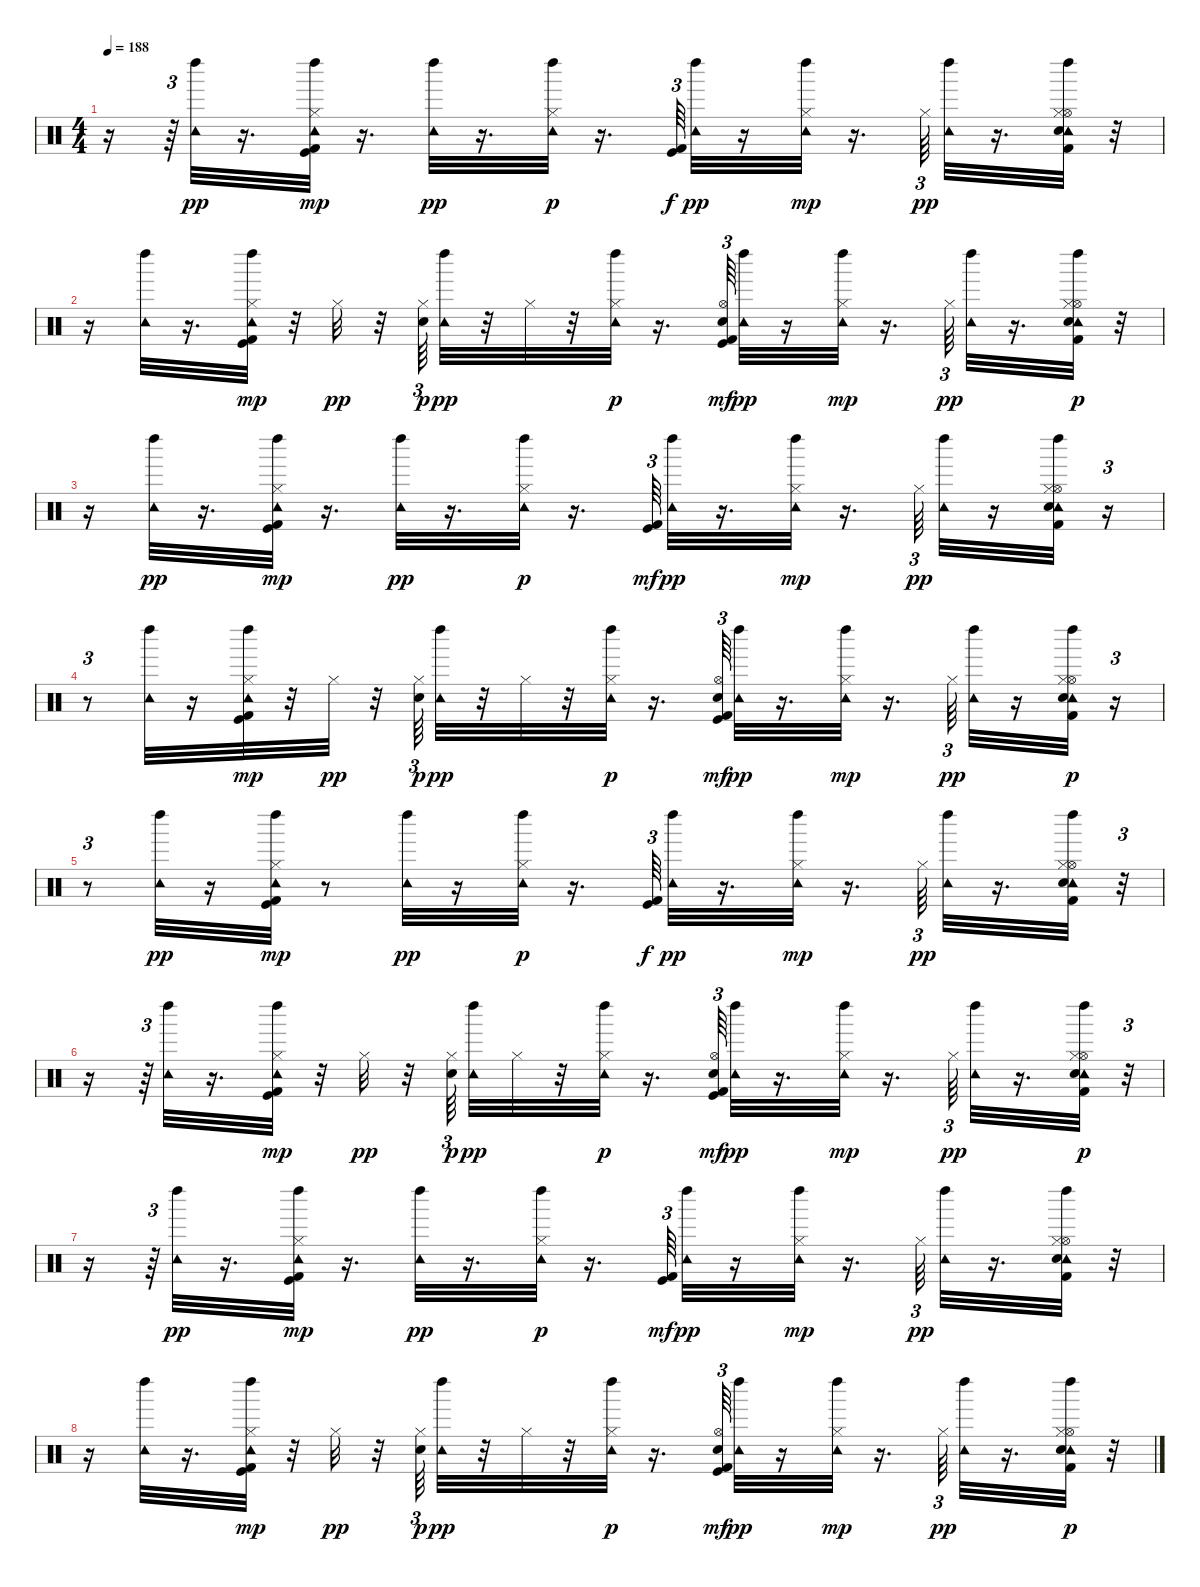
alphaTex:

\track "" {instrument percussion}
\staff {score}
\articulation defaults
\ts (4 4)
\tempo 188
\clef neutral
\ks c
r.16{dy p} r.64{tu (3 2)} ("Tambourine (hit)" "Left Maraca (hit)").32{dy pp} r.16{d} ("Kick (hit) 2" "Hi-Hat (closed)" "Tambourine (hit)" "Left Maraca (hit)" "Kick (hit)").32{dy mp} r.16{d} ("Tambourine (hit)" "Left Maraca (hit)").32{dy pp} r.16{d} ("Hi-Hat (closed)" "Tambourine (hit)" "Left Maraca (hit)").32{dy p} r.16{d} ("Kick (hit) 2" "Kick (hit)").64{tu (3 2) dy f} ("Tambourine (hit)" "Left Maraca (hit)").32{dy pp} r.16 ("Hi-Hat (closed)" "Tambourine (hit)" "Left Maraca (hit)").32{dy mp} r.16{d} "Hi-Hat (closed)".64{tu (3 2) dy pp} ("Tambourine (hit)" "Left Maraca (hit)").32 r.16{d} ("Kick (hit) 2" "Hi-Hat (open)" "Tambourine (hit)" "Left Maraca (hit)" "Electric Snare (hit)" "Hi-Hat (closed)").32 r.32 |
r.16 ("Tambourine (hit)" "Left Maraca (hit)").32 r.16{d} ("Kick (hit) 2" "Hi-Hat (closed)" "Tambourine (hit)" "Left Maraca (hit)" "Kick (hit)").32{dy mp} r.32 "Hi-Hat (closed)".32{dy pp} r.32 ("Electric Snare (hit)" "Hi-Hat (closed)").64{tu (3 2) dy p} ("Tambourine (hit)" "Left Maraca (hit)").32{dy pp} r.32 "Hi-Hat (closed)".32 r.32 ("Hi-Hat (closed)" "Tambourine (hit)" "Left Maraca (hit)").32{dy p} r.16{d} ("Kick (hit) 2" "Hi-Hat (open)" "Electric Snare (hit)" "Kick (hit)").64{tu (3 2) dy mf} ("Tambourine (hit)" "Left Maraca (hit)").32{dy pp} r.16 ("Hi-Hat (closed)" "Tambourine (hit)" "Left Maraca (hit)").32{dy mp} r.16{d} "Hi-Hat (closed)".64{tu (3 2) dy pp} ("Tambourine (hit)" "Left Maraca (hit)").32 r.16{d} ("Kick (hit) 2" "Hi-Hat (open)" "Tambourine (hit)" "Left Maraca (hit)" "Electric Snare (hit)" "Hi-Hat (closed)").32{dy p} r.32 |
r.16 ("Tambourine (hit)" "Left Maraca (hit)").32{dy pp} r.16{d} ("Kick (hit) 2" "Hi-Hat (closed)" "Tambourine (hit)" "Left Maraca (hit)" "Kick (hit)").32{dy mp} r.16{d} ("Tambourine (hit)" "Left Maraca (hit)").32{dy pp} r.16{d} ("Hi-Hat (closed)" "Tambourine (hit)" "Left Maraca (hit)").32{dy p} r.16{d} ("Kick (hit) 2" "Kick (hit)").64{tu (3 2) dy mf} ("Tambourine (hit)" "Left Maraca (hit)").32{dy pp} r.16{d} ("Hi-Hat (closed)" "Tambourine (hit)" "Left Maraca (hit)").32{dy mp} r.16{d} "Hi-Hat (closed)".64{tu (3 2) dy pp} ("Tambourine (hit)" "Left Maraca (hit)").32 r.16 ("Kick (hit) 2" "Hi-Hat (open)" "Tambourine (hit)" "Left Maraca (hit)" "Electric Snare (hit)" "Hi-Hat (closed)").32 r.16{tu (3 2)} |
r.8{tu (3 2)} ("Tambourine (hit)" "Left Maraca (hit)").32 r.16 ("Kick (hit) 2" "Hi-Hat (closed)" "Tambourine (hit)" "Left Maraca (hit)" "Kick (hit)").32{dy mp} r.32 "Hi-Hat (closed)".32{dy pp} r.32 ("Electric Snare (hit)" "Hi-Hat (closed)").64{tu (3 2) dy p} ("Tambourine (hit)" "Left Maraca (hit)").32{dy pp} r.32 "Hi-Hat (closed)".32 r.32 ("Hi-Hat (closed)" "Tambourine (hit)" "Left Maraca (hit)").32{dy p} r.16{d} ("Kick (hit) 2" "Hi-Hat (open)" "Electric Snare (hit)" "Kick (hit)").64{tu (3 2) dy mf} ("Tambourine (hit)" "Left Maraca (hit)").32{dy pp} r.16{d} ("Hi-Hat (closed)" "Tambourine (hit)" "Left Maraca (hit)").32{dy mp} r.16{d} "Hi-Hat (closed)".64{tu (3 2) dy pp} ("Tambourine (hit)" "Left Maraca (hit)").32 r.16 ("Kick (hit) 2" "Hi-Hat (open)" "Tambourine (hit)" "Left Maraca (hit)" "Electric Snare (hit)" "Hi-Hat (closed)").32{dy p} r.16{tu (3 2)} |
r.8{tu (3 2)} ("Tambourine (hit)" "Left Maraca (hit)").32{dy pp} r.16 ("Kick (hit) 2" "Hi-Hat (closed)" "Tambourine (hit)" "Left Maraca (hit)" "Kick (hit)").32{dy mp} r.8 ("Tambourine (hit)" "Left Maraca (hit)").32{dy pp} r.16 ("Hi-Hat (closed)" "Tambourine (hit)" "Left Maraca (hit)").32{dy p} r.16{d} ("Kick (hit) 2" "Kick (hit)").64{tu (3 2) dy f} ("Tambourine (hit)" "Left Maraca (hit)").32{dy pp} r.16{d} ("Hi-Hat (closed)" "Tambourine (hit)" "Left Maraca (hit)").32{dy mp} r.16{d} "Hi-Hat (closed)".64{tu (3 2) dy pp} ("Tambourine (hit)" "Left Maraca (hit)").32 r.16{d} ("Kick (hit) 2" "Hi-Hat (open)" "Tambourine (hit)" "Left Maraca (hit)" "Electric Snare (hit)" "Hi-Hat (closed)").32 r.32{tu (3 2)} |
r.16 r.64{tu (3 2)} ("Tambourine (hit)" "Left Maraca (hit)").32 r.16{d} ("Kick (hit) 2" "Hi-Hat (closed)" "Tambourine (hit)" "Left Maraca (hit)" "Kick (hit)").32{dy mp} r.32 "Hi-Hat (closed)".32{dy pp} r.32 ("Electric Snare (hit)" "Hi-Hat (closed)").64{tu (3 2) dy p beam splitsecondary} ("Tambourine (hit)" "Left Maraca (hit)").32{dy pp} "Hi-Hat (closed)".32 r.32 ("Hi-Hat (closed)" "Tambourine (hit)" "Left Maraca (hit)").32{dy p} r.16{d} ("Kick (hit) 2" "Hi-Hat (open)" "Electric Snare (hit)" "Kick (hit)").64{tu (3 2) dy mf} ("Tambourine (hit)" "Left Maraca (hit)").32{dy pp} r.16{d} ("Hi-Hat (closed)" "Tambourine (hit)" "Left Maraca (hit)").32{dy mp} r.16{d} "Hi-Hat (closed)".64{tu (3 2) dy pp} ("Tambourine (hit)" "Left Maraca (hit)").32 r.16{d} ("Kick (hit) 2" "Hi-Hat (open)" "Tambourine (hit)" "Left Maraca (hit)" "Electric Snare (hit)" "Hi-Hat (closed)").32{dy p} r.32{tu (3 2)} |
r.16 r.64{tu (3 2)} ("Tambourine (hit)" "Left Maraca (hit)").32{dy pp} r.16{d} ("Kick (hit) 2" "Hi-Hat (closed)" "Tambourine (hit)" "Left Maraca (hit)" "Kick (hit)").32{dy mp} r.16{d} ("Tambourine (hit)" "Left Maraca (hit)").32{dy pp} r.16{d} ("Hi-Hat (closed)" "Tambourine (hit)" "Left Maraca (hit)").32{dy p} r.16{d} ("Kick (hit) 2" "Kick (hit)").64{tu (3 2) dy mf} ("Tambourine (hit)" "Left Maraca (hit)").32{dy pp} r.16 ("Hi-Hat (closed)" "Tambourine (hit)" "Left Maraca (hit)").32{dy mp} r.16{d} "Hi-Hat (closed)".64{tu (3 2) dy pp} ("Tambourine (hit)" "Left Maraca (hit)").32 r.16{d} ("Kick (hit) 2" "Hi-Hat (open)" "Tambourine (hit)" "Left Maraca (hit)" "Electric Snare (hit)" "Hi-Hat (closed)").32 r.32 |
r.16 ("Tambourine (hit)" "Left Maraca (hit)").32 r.16{d} ("Kick (hit) 2" "Hi-Hat (closed)" "Tambourine (hit)" "Left Maraca (hit)" "Kick (hit)").32{dy mp} r.32 "Hi-Hat (closed)".32{dy pp} r.32 ("Electric Snare (hit)" "Hi-Hat (closed)").64{tu (3 2) dy p} ("Tambourine (hit)" "Left Maraca (hit)").32{dy pp} r.32 "Hi-Hat (closed)".32 r.32 ("Hi-Hat (closed)" "Tambourine (hit)" "Left Maraca (hit)").32{dy p} r.16{d} ("Kick (hit) 2" "Hi-Hat (open)" "Electric Snare (hit)" "Kick (hit)").64{tu (3 2) dy mf} ("Tambourine (hit)" "Left Maraca (hit)").32{dy pp} r.16 ("Hi-Hat (closed)" "Tambourine (hit)" "Left Maraca (hit)").32{dy mp} r.16{d} "Hi-Hat (closed)".64{tu (3 2) dy pp} ("Tambourine (hit)" "Left Maraca (hit)").32 r.16{d} ("Kick (hit) 2" "Hi-Hat (open)" "Tambourine (hit)" "Left Maraca (hit)" "Electric Snare (hit)" "Hi-Hat (closed)").32{dy p} r.32
